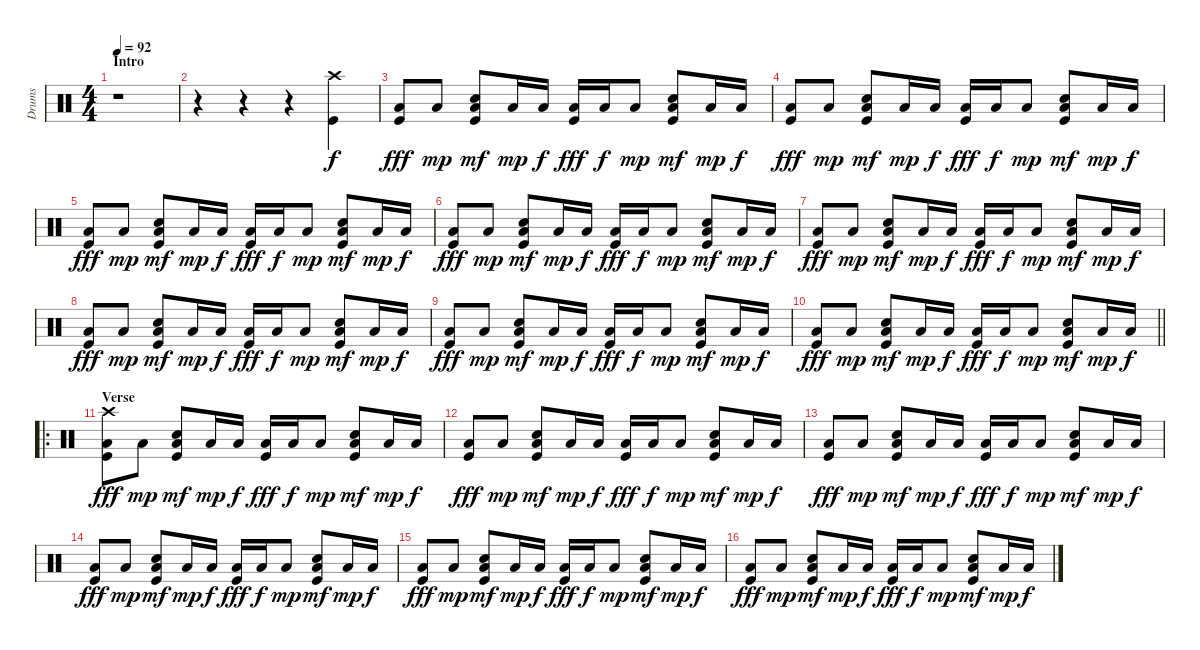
\track ("Drums" "Drums") {instrument percussion}
\staff {score}
\articulation defaults
\ts (4 4)
\section ("" "Intro")
\tempo 92
\clef neutral
\ks c
r.1{dy f} |
r.4 r.4 r.4 ("Crash high (hit)" "Kick (hit)").4 |
("Low Floor Tom (hit)" "Kick (hit)").8{dy fff} "Low Floor Tom (hit)".8{dy mp} ("Electric Snare (hit)" "Low Floor Tom (hit)" "Kick (hit)").8{dy mf} "Low Floor Tom (hit)".16{dy mp} "Low Tom (hit)".16{dy f} ("Low Floor Tom (hit)" "Kick (hit)").16{dy fff} "Low Tom (hit)".16{dy f} "Low Floor Tom (hit)".8{dy mp} ("Electric Snare (hit)" "Low Floor Tom (hit)" "Kick (hit)").8{dy mf} "Low Floor Tom (hit)".16{dy mp} "Low Tom (hit)".16{dy f} |
("Low Floor Tom (hit)" "Kick (hit)").8{dy fff} "Low Floor Tom (hit)".8{dy mp} ("Electric Snare (hit)" "Low Floor Tom (hit)" "Kick (hit)").8{dy mf} "Low Floor Tom (hit)".16{dy mp} "Low Tom (hit)".16{dy f} ("Low Floor Tom (hit)" "Kick (hit)").16{dy fff} "Low Tom (hit)".16{dy f} "Low Floor Tom (hit)".8{dy mp} ("Electric Snare (hit)" "Low Floor Tom (hit)" "Kick (hit)").8{dy mf} "Low Floor Tom (hit)".16{dy mp} "Low Tom (hit)".16{dy f} |
("Low Floor Tom (hit)" "Kick (hit)").8{dy fff} "Low Floor Tom (hit)".8{dy mp} ("Electric Snare (hit)" "Low Floor Tom (hit)" "Kick (hit)").8{dy mf} "Low Floor Tom (hit)".16{dy mp} "Low Tom (hit)".16{dy f} ("Low Floor Tom (hit)" "Kick (hit)").16{dy fff} "Low Tom (hit)".16{dy f} "Low Floor Tom (hit)".8{dy mp} ("Electric Snare (hit)" "Low Floor Tom (hit)" "Kick (hit)").8{dy mf} "Low Floor Tom (hit)".16{dy mp} "Low Tom (hit)".16{dy f} |
("Low Floor Tom (hit)" "Kick (hit)").8{dy fff} "Low Floor Tom (hit)".8{dy mp} ("Electric Snare (hit)" "Low Floor Tom (hit)" "Kick (hit)").8{dy mf} "Low Floor Tom (hit)".16{dy mp} "Low Tom (hit)".16{dy f} ("Low Floor Tom (hit)" "Kick (hit)").16{dy fff} "Low Tom (hit)".16{dy f} "Low Floor Tom (hit)".8{dy mp} ("Electric Snare (hit)" "Low Floor Tom (hit)" "Kick (hit)").8{dy mf} "Low Floor Tom (hit)".16{dy mp} "Low Tom (hit)".16{dy f} |
("Low Floor Tom (hit)" "Kick (hit)").8{dy fff} "Low Floor Tom (hit)".8{dy mp} ("Electric Snare (hit)" "Low Floor Tom (hit)" "Kick (hit)").8{dy mf} "Low Floor Tom (hit)".16{dy mp} "Low Tom (hit)".16{dy f} ("Low Floor Tom (hit)" "Kick (hit)").16{dy fff} "Low Tom (hit)".16{dy f} "Low Floor Tom (hit)".8{dy mp} ("Electric Snare (hit)" "Low Floor Tom (hit)" "Kick (hit)").8{dy mf} "Low Floor Tom (hit)".16{dy mp} "Low Tom (hit)".16{dy f} |
("Low Floor Tom (hit)" "Kick (hit)").8{dy fff} "Low Floor Tom (hit)".8{dy mp} ("Electric Snare (hit)" "Low Floor Tom (hit)" "Kick (hit)").8{dy mf} "Low Floor Tom (hit)".16{dy mp} "Low Tom (hit)".16{dy f} ("Low Floor Tom (hit)" "Kick (hit)").16{dy fff} "Low Tom (hit)".16{dy f} "Low Floor Tom (hit)".8{dy mp} ("Electric Snare (hit)" "Low Floor Tom (hit)" "Kick (hit)").8{dy mf} "Low Floor Tom (hit)".16{dy mp} "Low Tom (hit)".16{dy f} |
("Low Floor Tom (hit)" "Kick (hit)").8{dy fff} "Low Floor Tom (hit)".8{dy mp} ("Electric Snare (hit)" "Low Floor Tom (hit)" "Kick (hit)").8{dy mf} "Low Floor Tom (hit)".16{dy mp} "Low Tom (hit)".16{dy f} ("Low Floor Tom (hit)" "Kick (hit)").16{dy fff} "Low Tom (hit)".16{dy f} "Low Floor Tom (hit)".8{dy mp} ("Electric Snare (hit)" "Low Floor Tom (hit)" "Kick (hit)").8{dy mf} "Low Floor Tom (hit)".16{dy mp} "Low Tom (hit)".16{dy f} |
\barLineRight lightlight
("Low Floor Tom (hit)" "Kick (hit)").8{dy fff} "Low Floor Tom (hit)".8{dy mp} ("Electric Snare (hit)" "Low Floor Tom (hit)" "Kick (hit)").8{dy mf} "Low Floor Tom (hit)".16{dy mp} "Low Tom (hit)".16{dy f} ("Low Floor Tom (hit)" "Kick (hit)").16{dy fff} "Low Tom (hit)".16{dy f} "Low Floor Tom (hit)".8{dy mp} ("Electric Snare (hit)" "Low Floor Tom (hit)" "Kick (hit)").8{dy mf} "Low Floor Tom (hit)".16{dy mp} "Low Tom (hit)".16{dy f} |
\ro
\section ("" "Verse")
("Crash high (hit)" "Low Floor Tom (hit)" "Kick (hit)").8{dy fff} "Low Floor Tom (hit)".8{dy mp} ("Electric Snare (hit)" "Low Floor Tom (hit)" "Kick (hit)").8{dy mf} "Low Floor Tom (hit)".16{dy mp} "Low Tom (hit)".16{dy f} ("Low Floor Tom (hit)" "Kick (hit)").16{dy fff} "Low Tom (hit)".16{dy f} "Low Floor Tom (hit)".8{dy mp} ("Electric Snare (hit)" "Low Floor Tom (hit)" "Kick (hit)").8{dy mf} "Low Floor Tom (hit)".16{dy mp} "Low Tom (hit)".16{dy f} |
("Low Floor Tom (hit)" "Kick (hit)").8{dy fff} "Low Floor Tom (hit)".8{dy mp} ("Electric Snare (hit)" "Low Floor Tom (hit)" "Kick (hit)").8{dy mf} "Low Floor Tom (hit)".16{dy mp} "Low Tom (hit)".16{dy f} ("Low Floor Tom (hit)" "Kick (hit)").16{dy fff} "Low Tom (hit)".16{dy f} "Low Floor Tom (hit)".8{dy mp} ("Electric Snare (hit)" "Low Floor Tom (hit)" "Kick (hit)").8{dy mf} "Low Floor Tom (hit)".16{dy mp} "Low Tom (hit)".16{dy f} |
("Low Floor Tom (hit)" "Kick (hit)").8{dy fff} "Low Floor Tom (hit)".8{dy mp} ("Electric Snare (hit)" "Low Floor Tom (hit)" "Kick (hit)").8{dy mf} "Low Floor Tom (hit)".16{dy mp} "Low Tom (hit)".16{dy f} ("Low Floor Tom (hit)" "Kick (hit)").16{dy fff} "Low Tom (hit)".16{dy f} "Low Floor Tom (hit)".8{dy mp} ("Electric Snare (hit)" "Low Floor Tom (hit)" "Kick (hit)").8{dy mf} "Low Floor Tom (hit)".16{dy mp} "Low Tom (hit)".16{dy f} |
("Low Floor Tom (hit)" "Kick (hit)").8{dy fff} "Low Floor Tom (hit)".8{dy mp} ("Electric Snare (hit)" "Low Floor Tom (hit)" "Kick (hit)").8{dy mf} "Low Floor Tom (hit)".16{dy mp} "Low Tom (hit)".16{dy f} ("Low Floor Tom (hit)" "Kick (hit)").16{dy fff} "Low Tom (hit)".16{dy f} "Low Floor Tom (hit)".8{dy mp} ("Electric Snare (hit)" "Low Floor Tom (hit)" "Kick (hit)").8{dy mf} "Low Floor Tom (hit)".16{dy mp} "Low Tom (hit)".16{dy f} |
("Low Floor Tom (hit)" "Kick (hit)").8{dy fff} "Low Floor Tom (hit)".8{dy mp} ("Electric Snare (hit)" "Low Floor Tom (hit)" "Kick (hit)").8{dy mf} "Low Floor Tom (hit)".16{dy mp} "Low Tom (hit)".16{dy f} ("Low Floor Tom (hit)" "Kick (hit)").16{dy fff} "Low Tom (hit)".16{dy f} "Low Floor Tom (hit)".8{dy mp} ("Electric Snare (hit)" "Low Floor Tom (hit)" "Kick (hit)").8{dy mf} "Low Floor Tom (hit)".16{dy mp} "Low Tom (hit)".16{dy f} |
("Low Floor Tom (hit)" "Kick (hit)").8{dy fff} "Low Floor Tom (hit)".8{dy mp} ("Electric Snare (hit)" "Low Floor Tom (hit)" "Kick (hit)").8{dy mf} "Low Floor Tom (hit)".16{dy mp} "Low Tom (hit)".16{dy f} ("Low Floor Tom (hit)" "Kick (hit)").16{dy fff} "Low Tom (hit)".16{dy f} "Low Floor Tom (hit)".8{dy mp} ("Electric Snare (hit)" "Low Floor Tom (hit)" "Kick (hit)").8{dy mf} "Low Floor Tom (hit)".16{dy mp} "Low Tom (hit)".16{dy f}
